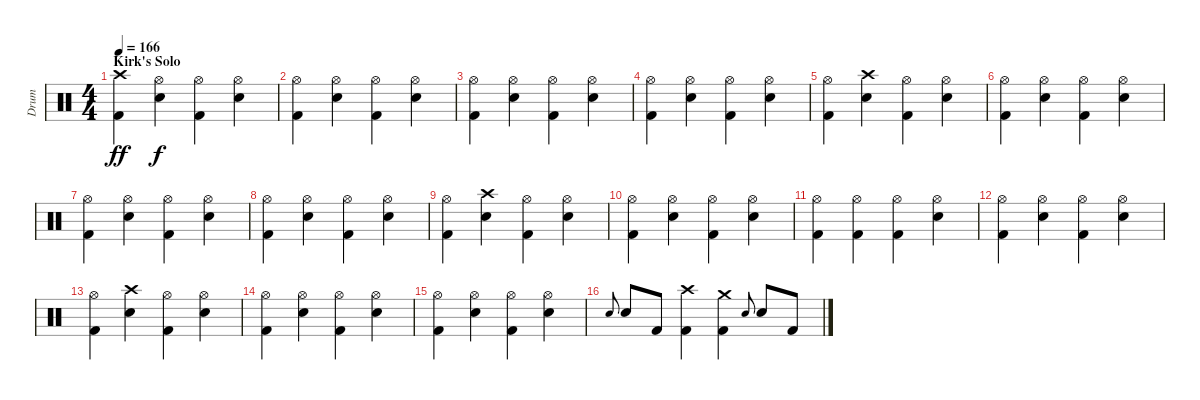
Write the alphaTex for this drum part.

\track ("Drum" "Drum") {instrument percussion}
\staff {score}
\articulation defaults
\ts (4 4)
\section ("" "Kirk's Solo")
\tempo 166
\clef neutral
\ks c
("Crash high (hit)" "Kick (hit) 2").4{dy ff} ("Hi-Hat (open)" "Snare (hit) 2").4{dy f} ("Hi-Hat (open)" "Kick (hit) 2").4 ("Hi-Hat (open)" "Snare (hit) 2").4 |
("Hi-Hat (open)" "Kick (hit) 2").4 ("Hi-Hat (open)" "Snare (hit) 2").4 ("Hi-Hat (open)" "Kick (hit) 2").4 ("Hi-Hat (open)" "Snare (hit) 2").4 |
("Hi-Hat (open)" "Kick (hit) 2").4 ("Hi-Hat (open)" "Snare (hit) 2").4 ("Hi-Hat (open)" "Kick (hit) 2").4 ("Hi-Hat (open)" "Snare (hit) 2").4 |
("Hi-Hat (open)" "Kick (hit) 2").4 ("Hi-Hat (open)" "Snare (hit) 2").4 ("Hi-Hat (open)" "Kick (hit) 2").4 ("Hi-Hat (open)" "Snare (hit) 2").4 |
("Hi-Hat (open)" "Kick (hit) 2").4 ("Crash high (hit)" "Snare (hit) 2").4 ("Hi-Hat (open)" "Kick (hit) 2").4 ("Hi-Hat (open)" "Snare (hit) 2").4 |
("Hi-Hat (open)" "Kick (hit) 2").4 ("Hi-Hat (open)" "Snare (hit) 2").4 ("Hi-Hat (open)" "Kick (hit) 2").4 ("Hi-Hat (open)" "Snare (hit) 2").4 |
("Hi-Hat (open)" "Kick (hit) 2").4 ("Hi-Hat (open)" "Snare (hit) 2").4 ("Hi-Hat (open)" "Kick (hit) 2").4 ("Hi-Hat (open)" "Snare (hit) 2").4 |
("Hi-Hat (open)" "Kick (hit) 2").4 ("Hi-Hat (open)" "Snare (hit) 2").4 ("Hi-Hat (open)" "Kick (hit) 2").4 ("Hi-Hat (open)" "Snare (hit) 2").4 |
("Hi-Hat (open)" "Kick (hit) 2").4 ("Crash high (hit)" "Snare (hit) 2").4 ("Hi-Hat (open)" "Kick (hit) 2").4 ("Hi-Hat (open)" "Snare (hit) 2").4 |
("Hi-Hat (open)" "Kick (hit) 2").4 ("Hi-Hat (open)" "Snare (hit) 2").4 ("Hi-Hat (open)" "Kick (hit) 2").4 ("Hi-Hat (open)" "Snare (hit) 2").4 |
("Hi-Hat (open)" "Kick (hit) 2").4 ("Hi-Hat (open)" "Kick (hit) 2").4 ("Hi-Hat (open)" "Kick (hit) 2").4 ("Hi-Hat (open)" "Snare (hit) 2").4 |
("Hi-Hat (open)" "Kick (hit) 2").4 ("Hi-Hat (open)" "Snare (hit) 2").4 ("Hi-Hat (open)" "Kick (hit) 2").4 ("Hi-Hat (open)" "Snare (hit) 2").4 |
("Hi-Hat (open)" "Kick (hit) 2").4 ("Crash high (hit)" "Snare (hit) 2").4 ("Hi-Hat (open)" "Kick (hit) 2").4 ("Hi-Hat (open)" "Snare (hit) 2").4 |
("Hi-Hat (open)" "Kick (hit) 2").4 ("Hi-Hat (open)" "Snare (hit) 2").4 ("Hi-Hat (open)" "Kick (hit) 2").4 ("Hi-Hat (open)" "Snare (hit) 2").4 |
("Hi-Hat (open)" "Kick (hit) 2").4 ("Hi-Hat (open)" "Snare (hit) 2").4 ("Hi-Hat (open)" "Kick (hit) 2").4 ("Hi-Hat (open)" "Snare (hit) 2").4 |
"Snare (hit) 2".8{gr onbeat} "Snare (hit) 2".8 "Kick (hit) 2".8 ("Crash high (hit)" "Kick (hit) 2").4 ("Crash medium (hit)" "Kick (hit) 2").4 "Snare (hit) 2".8{gr onbeat} "Snare (hit) 2".8 "Kick (hit) 2".8
